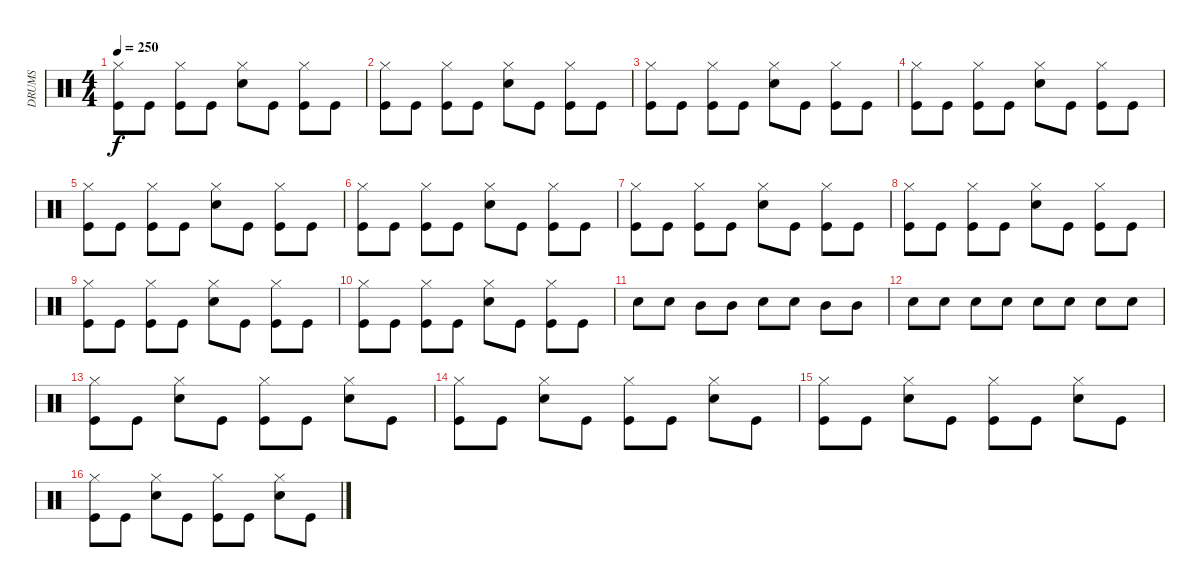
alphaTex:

\track ("DRUMS" "DRUMS") {instrument percussion}
\staff {score}
\articulation defaults
\ts (4 4)
\tempo 250
\clef neutral
\ks aminor
("Hi-Hat (closed)" "Kick (hit)").8{dy f} "Kick (hit)".8 ("Hi-Hat (closed)" "Kick (hit)").8 "Kick (hit)".8 ("Hi-Hat (closed)" "Snare (hit) 2").8 "Kick (hit)".8 ("Hi-Hat (closed)" "Kick (hit)").8 "Kick (hit)".8 |
("Hi-Hat (closed)" "Kick (hit)").8 "Kick (hit)".8 ("Hi-Hat (closed)" "Kick (hit)").8 "Kick (hit)".8 ("Hi-Hat (closed)" "Snare (hit) 2").8 "Kick (hit)".8 ("Hi-Hat (closed)" "Kick (hit)").8 "Kick (hit)".8 |
("Hi-Hat (closed)" "Kick (hit)").8 "Kick (hit)".8 ("Hi-Hat (closed)" "Kick (hit)").8 "Kick (hit)".8 ("Hi-Hat (closed)" "Snare (hit) 2").8 "Kick (hit)".8 ("Hi-Hat (closed)" "Kick (hit)").8 "Kick (hit)".8 |
("Hi-Hat (closed)" "Kick (hit)").8 "Kick (hit)".8 ("Hi-Hat (closed)" "Kick (hit)").8 "Kick (hit)".8 ("Hi-Hat (closed)" "Snare (hit) 2").8 "Kick (hit)".8 ("Hi-Hat (closed)" "Kick (hit)").8 "Kick (hit)".8 |
("Hi-Hat (closed)" "Kick (hit)").8 "Kick (hit)".8 ("Hi-Hat (closed)" "Kick (hit)").8 "Kick (hit)".8 ("Hi-Hat (closed)" "Snare (hit) 2").8 "Kick (hit)".8 ("Hi-Hat (closed)" "Kick (hit)").8 "Kick (hit)".8 |
("Hi-Hat (closed)" "Kick (hit)").8 "Kick (hit)".8 ("Hi-Hat (closed)" "Kick (hit)").8 "Kick (hit)".8 ("Hi-Hat (closed)" "Snare (hit) 2").8 "Kick (hit)".8 ("Hi-Hat (closed)" "Kick (hit)").8 "Kick (hit)".8 |
("Hi-Hat (closed)" "Kick (hit)").8 "Kick (hit)".8 ("Hi-Hat (closed)" "Kick (hit)").8 "Kick (hit)".8 ("Hi-Hat (closed)" "Snare (hit) 2").8 "Kick (hit)".8 ("Hi-Hat (closed)" "Kick (hit)").8 "Kick (hit)".8 |
("Hi-Hat (closed)" "Kick (hit)").8 "Kick (hit)".8 ("Hi-Hat (closed)" "Kick (hit)").8 "Kick (hit)".8 ("Hi-Hat (closed)" "Snare (hit) 2").8 "Kick (hit)".8 ("Hi-Hat (closed)" "Kick (hit)").8 "Kick (hit)".8 |
("Hi-Hat (closed)" "Kick (hit)").8 "Kick (hit)".8 ("Hi-Hat (closed)" "Kick (hit)").8 "Kick (hit)".8 ("Hi-Hat (closed)" "Snare (hit) 2").8 "Kick (hit)".8 ("Hi-Hat (closed)" "Kick (hit)").8 "Kick (hit)".8 |
("Hi-Hat (closed)" "Kick (hit)").8 "Kick (hit)".8 ("Hi-Hat (closed)" "Kick (hit)").8 "Kick (hit)".8 ("Hi-Hat (closed)" "Snare (hit) 2").8 "Kick (hit)".8 ("Hi-Hat (closed)" "Kick (hit)").8 "Kick (hit)".8 |
"Snare (hit) 2".8 "Snare (hit) 2".8 "Mid Tom (hit)".8 "Mid Tom (hit)".8 "Snare (hit) 2".8 "Snare (hit) 2".8 "Mid Tom (hit)".8 "Mid Tom (hit)".8 |
"Snare (hit) 2".8 "Snare (hit) 2".8 "Snare (hit) 2".8 "Snare (hit) 2".8 "Snare (hit) 2".8 "Snare (hit) 2".8 "Snare (hit) 2".8 "Snare (hit) 2".8 |
("Hi-Hat (closed)" "Kick (hit)").8 "Kick (hit)".8 ("Hi-Hat (closed)" "Snare (hit) 2").8 "Kick (hit)".8 ("Hi-Hat (closed)" "Kick (hit)").8 "Kick (hit)".8 ("Hi-Hat (closed)" "Snare (hit) 2").8 "Kick (hit)".8 |
("Hi-Hat (closed)" "Kick (hit)").8 "Kick (hit)".8 ("Hi-Hat (closed)" "Snare (hit) 2").8 "Kick (hit)".8 ("Hi-Hat (closed)" "Kick (hit)").8 "Kick (hit)".8 ("Hi-Hat (closed)" "Snare (hit) 2").8 "Kick (hit)".8 |
("Hi-Hat (closed)" "Kick (hit)").8 "Kick (hit)".8 ("Hi-Hat (closed)" "Snare (hit) 2").8 "Kick (hit)".8 ("Hi-Hat (closed)" "Kick (hit)").8 "Kick (hit)".8 ("Hi-Hat (closed)" "Snare (hit) 2").8 "Kick (hit)".8 |
("Hi-Hat (closed)" "Kick (hit)").8 "Kick (hit)".8 ("Hi-Hat (closed)" "Snare (hit) 2").8 "Kick (hit)".8 ("Hi-Hat (closed)" "Kick (hit)").8 "Kick (hit)".8 ("Hi-Hat (closed)" "Snare (hit) 2").8 "Kick (hit)".8
